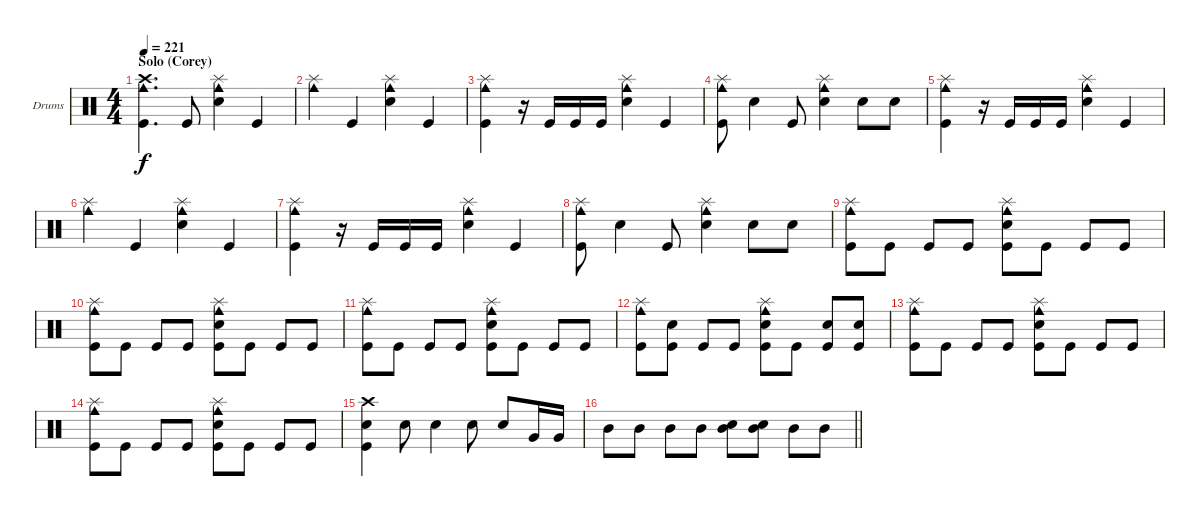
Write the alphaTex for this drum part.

\bracketExtendMode groupsimilarinstruments
\firstSystemTrackNameOrientation horizontal
\otherSystemsTrackNameOrientation horizontal
\track ("Drumkit" "Drums") {instrument percussion}
\staff {score}
\articulation defaults
\ts (4 4)
\section ("" "Solo (Corey)")
\tempo 221
\clef neutral
\ks c
("Crash high (hit)" "Cowbell medium (hit)" "Kick (hit)").4{d dy f} "Kick (hit)".8 ("Splash (hit)" "Snare (hit) 2" "Cowbell medium (hit)").4 "Kick (hit)".4 |
("Splash (hit)" "Cowbell medium (hit)").4 "Kick (hit)".4 ("Splash (hit)" "Snare (hit) 2" "Cowbell medium (hit)").4 "Kick (hit)".4 |
("Splash (hit)" "Cowbell medium (hit)" "Kick (hit)").4 r.16 "Kick (hit)".16 "Kick (hit)".16 "Kick (hit)".16 ("Splash (hit)" "Snare (hit) 2" "Cowbell medium (hit)").4 "Kick (hit)".4 |
("Splash (hit)" "Cowbell medium (hit)" "Kick (hit)").8 "Snare (hit) 2".4 "Kick (hit)".8 ("Splash (hit)" "Snare (hit) 2" "Cowbell medium (hit)").4 "Snare (hit) 2".8 "Snare (hit) 2".8 |
("Splash (hit)" "Cowbell medium (hit)" "Kick (hit)").4 r.16 "Kick (hit)".16 "Kick (hit)".16 "Kick (hit)".16 ("Splash (hit)" "Snare (hit) 2" "Cowbell medium (hit)").4 "Kick (hit)".4 |
("Splash (hit)" "Cowbell medium (hit)").4 "Kick (hit)".4 ("Splash (hit)" "Snare (hit) 2" "Cowbell medium (hit)").4 "Kick (hit)".4 |
("Splash (hit)" "Cowbell medium (hit)" "Kick (hit)").4 r.16 "Kick (hit)".16 "Kick (hit)".16 "Kick (hit)".16 ("Splash (hit)" "Snare (hit) 2" "Cowbell medium (hit)").4 "Kick (hit)".4 |
("Splash (hit)" "Cowbell medium (hit)" "Kick (hit)").8 "Snare (hit) 2".4 "Kick (hit)".8 ("Splash (hit)" "Snare (hit) 2" "Cowbell medium (hit)").4 "Snare (hit) 2".8 "Snare (hit) 2".8 |
("Splash (hit)" "Cowbell medium (hit)" "Kick (hit)").8 "Kick (hit)".8 "Kick (hit)".8 "Kick (hit)".8 ("Splash (hit)" "Snare (hit) 2" "Cowbell medium (hit)" "Kick (hit)").8 "Kick (hit)".8 "Kick (hit)".8 "Kick (hit)".8 |
("Splash (hit)" "Cowbell medium (hit)" "Kick (hit)").8 "Kick (hit)".8 "Kick (hit)".8 "Kick (hit)".8 ("Splash (hit)" "Snare (hit) 2" "Cowbell medium (hit)" "Kick (hit)").8 "Kick (hit)".8 "Kick (hit)".8 "Kick (hit)".8 |
("Splash (hit)" "Cowbell medium (hit)" "Kick (hit)").8 "Kick (hit)".8 "Kick (hit)".8 "Kick (hit)".8 ("Splash (hit)" "Snare (hit) 2" "Cowbell medium (hit)" "Kick (hit)").8 "Kick (hit)".8 "Kick (hit)".8 "Kick (hit)".8 |
("Splash (hit)" "Cowbell medium (hit)" "Kick (hit)").8 ("Snare (hit) 2" "Kick (hit)").8 "Kick (hit)".8 "Kick (hit)".8 ("Splash (hit)" "Snare (hit) 2" "Cowbell medium (hit)" "Kick (hit)").8 "Kick (hit)".8 ("Snare (hit) 2" "Kick (hit)").8 ("Snare (hit) 2" "Kick (hit)").8 |
("Splash (hit)" "Cowbell medium (hit)" "Kick (hit)").8 "Kick (hit)".8 "Kick (hit)".8 "Kick (hit)".8 ("Splash (hit)" "Snare (hit) 2" "Cowbell medium (hit)" "Kick (hit)").8 "Kick (hit)".8 "Kick (hit)".8 "Kick (hit)".8 |
("Splash (hit)" "Cowbell medium (hit)" "Kick (hit)").8 "Kick (hit)".8 "Kick (hit)".8 "Kick (hit)".8 ("Splash (hit)" "Snare (hit) 2" "Cowbell medium (hit)" "Kick (hit)").8 "Kick (hit)".8 "Kick (hit)".8 "Kick (hit)".8 |
("Crash high (hit)" "Snare (hit) 2" "Kick (hit)").4 "Snare (hit) 2".8 "Snare (hit) 2".4 "Snare (hit) 2".8 "Snare (hit) 2".8 "Very Low Tom (hit)".16 "Very Low Tom (hit)".16 |
\barLineRight lightlight "Mid Tom (hit)".8 "Mid Tom (hit)".8 "Mid Tom (hit)".8 "Mid Tom (hit)".8
("Snare (hit) 2" "Mid Tom (hit)").8 ("Snare (hit) 2" "Mid Tom (hit)").8 "Mid Tom (hit)".8 "Mid Tom (hit)".8
